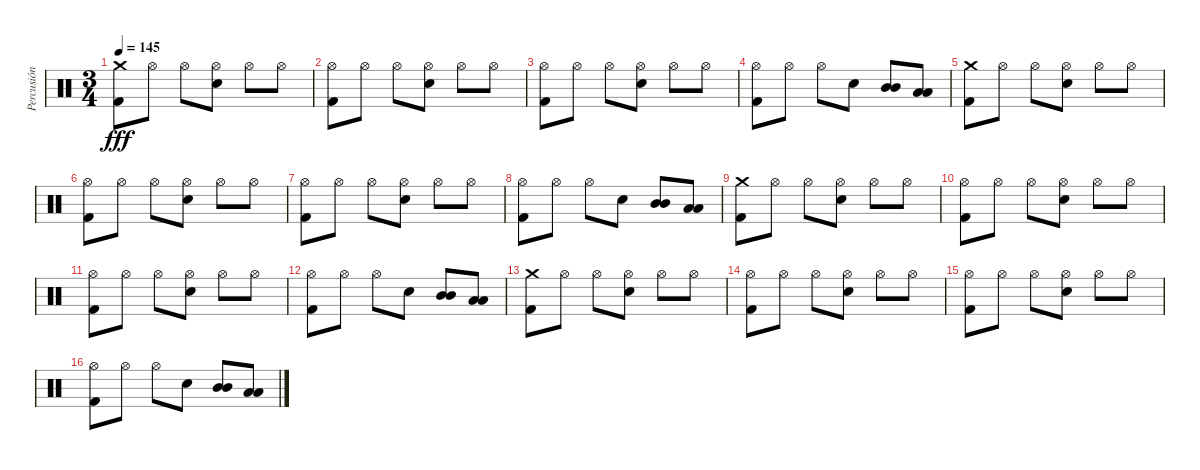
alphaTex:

\track ("Percusión" "Percusión") {instrument percussion}
\staff {score}
\articulation defaults
\ts (3 4)
\tempo 145
\clef neutral
\ks c
("Crash medium (hit)" "Kick (hit) 2").8{dy fff} "Hi-Hat (open)".8 "Hi-Hat (open)".8 ("Hi-Hat (open)" "Snare (hit) 2").8 "Hi-Hat (open)".8 "Hi-Hat (open)".8 |
("Hi-Hat (open)" "Kick (hit) 2").8 "Hi-Hat (open)".8 "Hi-Hat (open)".8 ("Hi-Hat (open)" "Snare (hit) 2").8 "Hi-Hat (open)".8 "Hi-Hat (open)".8 |
("Hi-Hat (open)" "Kick (hit) 2").8 "Hi-Hat (open)".8 "Hi-Hat (open)".8 ("Hi-Hat (open)" "Snare (hit) 2").8 "Hi-Hat (open)".8 "Hi-Hat (open)".8 |
("Hi-Hat (open)" "Kick (hit) 2").8 "Hi-Hat (open)".8 "Hi-Hat (open)".8 "Snare (hit) 2".8 ("Mid Tom (hit)" "Mid Tom (hit)").8 ("Low Tom (hit)" "Low Tom (hit)").8 |
("Crash medium (hit)" "Kick (hit) 2").8 "Hi-Hat (open)".8 "Hi-Hat (open)".8 ("Hi-Hat (open)" "Snare (hit) 2").8 "Hi-Hat (open)".8 "Hi-Hat (open)".8 |
("Hi-Hat (open)" "Kick (hit) 2").8 "Hi-Hat (open)".8 "Hi-Hat (open)".8 ("Hi-Hat (open)" "Snare (hit) 2").8 "Hi-Hat (open)".8 "Hi-Hat (open)".8 |
("Hi-Hat (open)" "Kick (hit) 2").8 "Hi-Hat (open)".8 "Hi-Hat (open)".8 ("Hi-Hat (open)" "Snare (hit) 2").8 "Hi-Hat (open)".8 "Hi-Hat (open)".8 |
("Hi-Hat (open)" "Kick (hit) 2").8 "Hi-Hat (open)".8 "Hi-Hat (open)".8 "Snare (hit) 2".8 ("Mid Tom (hit)" "Mid Tom (hit)").8 ("Low Tom (hit)" "Low Tom (hit)").8 |
("Crash medium (hit)" "Kick (hit) 2").8 "Hi-Hat (open)".8 "Hi-Hat (open)".8 ("Hi-Hat (open)" "Snare (hit) 2").8 "Hi-Hat (open)".8 "Hi-Hat (open)".8 |
("Hi-Hat (open)" "Kick (hit) 2").8 "Hi-Hat (open)".8 "Hi-Hat (open)".8 ("Hi-Hat (open)" "Snare (hit) 2").8 "Hi-Hat (open)".8 "Hi-Hat (open)".8 |
("Hi-Hat (open)" "Kick (hit) 2").8 "Hi-Hat (open)".8 "Hi-Hat (open)".8 ("Hi-Hat (open)" "Snare (hit) 2").8 "Hi-Hat (open)".8 "Hi-Hat (open)".8 |
("Hi-Hat (open)" "Kick (hit) 2").8 "Hi-Hat (open)".8 "Hi-Hat (open)".8 "Snare (hit) 2".8 ("Mid Tom (hit)" "Mid Tom (hit)").8 ("Low Tom (hit)" "Low Tom (hit)").8 |
("Crash medium (hit)" "Kick (hit) 2").8 "Hi-Hat (open)".8 "Hi-Hat (open)".8 ("Hi-Hat (open)" "Snare (hit) 2").8 "Hi-Hat (open)".8 "Hi-Hat (open)".8 |
("Hi-Hat (open)" "Kick (hit) 2").8 "Hi-Hat (open)".8 "Hi-Hat (open)".8 ("Hi-Hat (open)" "Snare (hit) 2").8 "Hi-Hat (open)".8 "Hi-Hat (open)".8 |
("Hi-Hat (open)" "Kick (hit) 2").8 "Hi-Hat (open)".8 "Hi-Hat (open)".8 ("Hi-Hat (open)" "Snare (hit) 2").8 "Hi-Hat (open)".8 "Hi-Hat (open)".8 |
("Hi-Hat (open)" "Kick (hit) 2").8 "Hi-Hat (open)".8 "Hi-Hat (open)".8 "Snare (hit) 2".8 ("Mid Tom (hit)" "Mid Tom (hit)").8 ("Low Tom (hit)" "Low Tom (hit)").8
